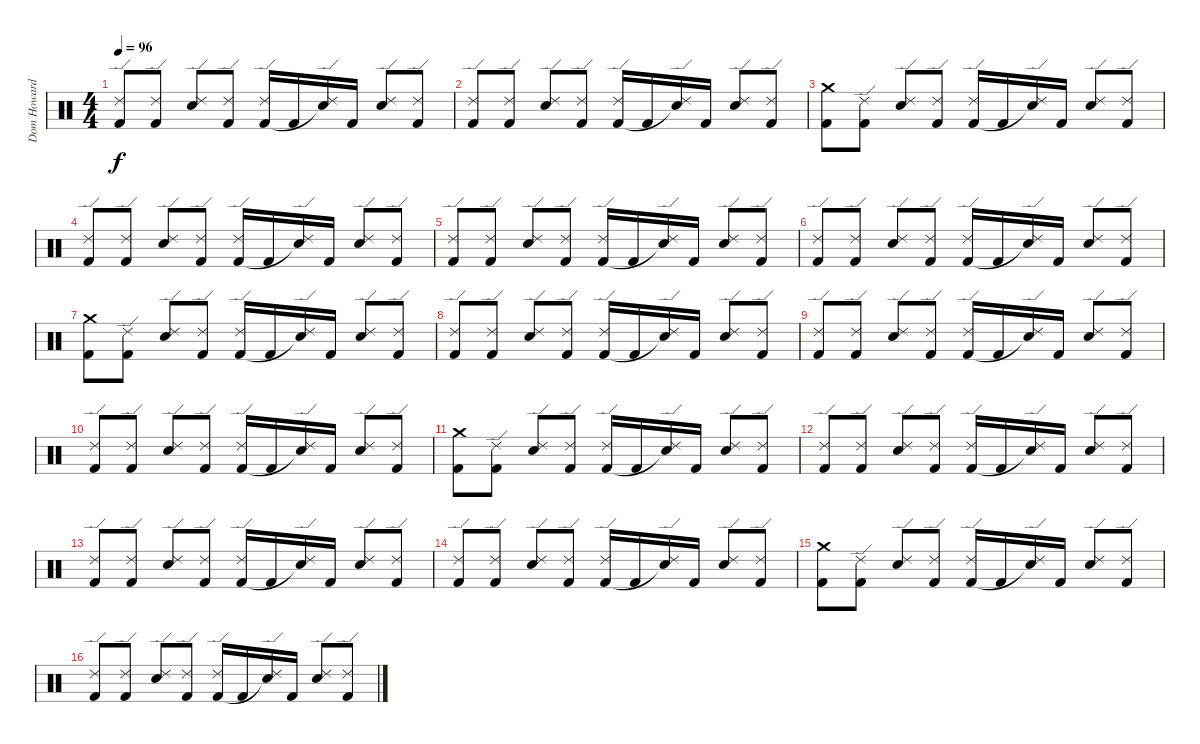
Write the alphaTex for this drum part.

\track ("Dom Howard" "Dom Howard") {instrument percussion}
\staff {score}
\articulation defaults
\ts (4 4)
\tempo 96
\clef neutral
\ks c
("Ride (edge) 2" "Kick (hit) 2").8{dy f} ("Ride (edge) 2" "Kick (hit) 2").8 ("Ride (edge) 2" "Electric Snare (hit)").8 ("Ride (edge) 2" "Kick (hit) 2").8 ("Ride (edge) 2" "Kick (hit) 2").16 "Kick (hit) 2".16 ("Ride (edge) 2" "Snare (hit)"{t}).16 "Kick (hit) 2".16 ("Ride (edge) 2" "Electric Snare (hit)").8 ("Ride (edge) 2" "Kick (hit) 2").8 |
("Ride (edge) 2" "Kick (hit) 2").8 ("Ride (edge) 2" "Kick (hit) 2").8 ("Ride (edge) 2" "Electric Snare (hit)").8 ("Ride (edge) 2" "Kick (hit) 2").8 ("Ride (edge) 2" "Kick (hit) 2").16 "Kick (hit) 2".16 ("Ride (edge) 2" "Snare (hit)"{t}).16 "Kick (hit) 2".16 ("Ride (edge) 2" "Electric Snare (hit)").8 ("Ride (edge) 2" "Kick (hit) 2").8 |
("Crash medium (hit)" "Kick (hit) 2").8 ("Ride (edge) 2" "Kick (hit) 2").8 ("Ride (edge) 2" "Electric Snare (hit)").8 ("Ride (edge) 2" "Kick (hit) 2").8 ("Ride (edge) 2" "Kick (hit) 2").16 "Kick (hit) 2".16 ("Ride (edge) 2" "Snare (hit)"{t}).16 "Kick (hit) 2".16 ("Ride (edge) 2" "Electric Snare (hit)").8 ("Ride (edge) 2" "Kick (hit) 2").8 |
("Ride (edge) 2" "Kick (hit) 2").8 ("Ride (edge) 2" "Kick (hit) 2").8 ("Ride (edge) 2" "Electric Snare (hit)").8 ("Ride (edge) 2" "Kick (hit) 2").8 ("Ride (edge) 2" "Kick (hit) 2").16 "Kick (hit) 2".16 ("Ride (edge) 2" "Snare (hit)"{t}).16 "Kick (hit) 2".16 ("Ride (edge) 2" "Electric Snare (hit)").8 ("Ride (edge) 2" "Kick (hit) 2").8 |
("Ride (edge) 2" "Kick (hit) 2").8 ("Ride (edge) 2" "Kick (hit) 2").8 ("Ride (edge) 2" "Electric Snare (hit)").8 ("Ride (edge) 2" "Kick (hit) 2").8 ("Ride (edge) 2" "Kick (hit) 2").16 "Kick (hit) 2".16 ("Ride (edge) 2" "Snare (hit)"{t}).16 "Kick (hit) 2".16 ("Ride (edge) 2" "Electric Snare (hit)").8 ("Ride (edge) 2" "Kick (hit) 2").8 |
("Ride (edge) 2" "Kick (hit) 2").8 ("Ride (edge) 2" "Kick (hit) 2").8 ("Ride (edge) 2" "Electric Snare (hit)").8 ("Ride (edge) 2" "Kick (hit) 2").8 ("Ride (edge) 2" "Kick (hit) 2").16 "Kick (hit) 2".16 ("Ride (edge) 2" "Snare (hit)"{t}).16 "Kick (hit) 2".16 ("Ride (edge) 2" "Electric Snare (hit)").8 ("Ride (edge) 2" "Kick (hit) 2").8 |
("Crash medium (hit)" "Kick (hit) 2").8 ("Ride (edge) 2" "Kick (hit) 2").8 ("Ride (edge) 2" "Electric Snare (hit)").8 ("Ride (edge) 2" "Kick (hit) 2").8 ("Ride (edge) 2" "Kick (hit) 2").16 "Kick (hit) 2".16 ("Ride (edge) 2" "Snare (hit)"{t}).16 "Kick (hit) 2".16 ("Ride (edge) 2" "Electric Snare (hit)").8 ("Ride (edge) 2" "Kick (hit) 2").8 |
("Ride (edge) 2" "Kick (hit) 2").8 ("Ride (edge) 2" "Kick (hit) 2").8 ("Ride (edge) 2" "Electric Snare (hit)").8 ("Ride (edge) 2" "Kick (hit) 2").8 ("Ride (edge) 2" "Kick (hit) 2").16 "Kick (hit) 2".16 ("Ride (edge) 2" "Snare (hit)"{t}).16 "Kick (hit) 2".16 ("Ride (edge) 2" "Electric Snare (hit)").8 ("Ride (edge) 2" "Kick (hit) 2").8 |
("Ride (edge) 2" "Kick (hit) 2").8 ("Ride (edge) 2" "Kick (hit) 2").8 ("Ride (edge) 2" "Electric Snare (hit)").8 ("Ride (edge) 2" "Kick (hit) 2").8 ("Ride (edge) 2" "Kick (hit) 2").16 "Kick (hit) 2".16 ("Ride (edge) 2" "Snare (hit)"{t}).16 "Kick (hit) 2".16 ("Ride (edge) 2" "Electric Snare (hit)").8 ("Ride (edge) 2" "Kick (hit) 2").8 |
("Ride (edge) 2" "Kick (hit) 2").8 ("Ride (edge) 2" "Kick (hit) 2").8 ("Ride (edge) 2" "Electric Snare (hit)").8 ("Ride (edge) 2" "Kick (hit) 2").8 ("Ride (edge) 2" "Kick (hit) 2").16 "Kick (hit) 2".16 ("Ride (edge) 2" "Snare (hit)"{t}).16 "Kick (hit) 2".16 ("Ride (edge) 2" "Electric Snare (hit)").8 ("Ride (edge) 2" "Kick (hit) 2").8 |
("Crash medium (hit)" "Kick (hit) 2").8 ("Ride (edge) 2" "Kick (hit) 2").8 ("Ride (edge) 2" "Electric Snare (hit)").8 ("Ride (edge) 2" "Kick (hit) 2").8 ("Ride (edge) 2" "Kick (hit) 2").16 "Kick (hit) 2".16 ("Ride (edge) 2" "Snare (hit)"{t}).16 "Kick (hit) 2".16 ("Ride (edge) 2" "Electric Snare (hit)").8 ("Ride (edge) 2" "Kick (hit) 2").8 |
("Ride (edge) 2" "Kick (hit) 2").8 ("Ride (edge) 2" "Kick (hit) 2").8 ("Ride (edge) 2" "Electric Snare (hit)").8 ("Ride (edge) 2" "Kick (hit) 2").8 ("Ride (edge) 2" "Kick (hit) 2").16 "Kick (hit) 2".16 ("Ride (edge) 2" "Snare (hit)"{t}).16 "Kick (hit) 2".16 ("Ride (edge) 2" "Electric Snare (hit)").8 ("Ride (edge) 2" "Kick (hit) 2").8 |
("Ride (edge) 2" "Kick (hit) 2").8 ("Ride (edge) 2" "Kick (hit) 2").8 ("Ride (edge) 2" "Electric Snare (hit)").8 ("Ride (edge) 2" "Kick (hit) 2").8 ("Ride (edge) 2" "Kick (hit) 2").16 "Kick (hit) 2".16 ("Ride (edge) 2" "Snare (hit)"{t}).16 "Kick (hit) 2".16 ("Ride (edge) 2" "Electric Snare (hit)").8 ("Ride (edge) 2" "Kick (hit) 2").8 |
("Ride (edge) 2" "Kick (hit) 2").8 ("Ride (edge) 2" "Kick (hit) 2").8 ("Ride (edge) 2" "Electric Snare (hit)").8 ("Ride (edge) 2" "Kick (hit) 2").8 ("Ride (edge) 2" "Kick (hit) 2").16 "Kick (hit) 2".16 ("Ride (edge) 2" "Snare (hit)"{t}).16 "Kick (hit) 2".16 ("Ride (edge) 2" "Electric Snare (hit)").8 ("Ride (edge) 2" "Kick (hit) 2").8 |
("Crash medium (hit)" "Kick (hit) 2").8 ("Ride (edge) 2" "Kick (hit) 2").8 ("Ride (edge) 2" "Electric Snare (hit)").8 ("Ride (edge) 2" "Kick (hit) 2").8 ("Ride (edge) 2" "Kick (hit) 2").16 "Kick (hit) 2".16 ("Ride (edge) 2" "Snare (hit)"{t}).16 "Kick (hit) 2".16 ("Ride (edge) 2" "Electric Snare (hit)").8 ("Ride (edge) 2" "Kick (hit) 2").8 |
("Ride (edge) 2" "Kick (hit) 2").8 ("Ride (edge) 2" "Kick (hit) 2").8 ("Ride (edge) 2" "Electric Snare (hit)").8 ("Ride (edge) 2" "Kick (hit) 2").8 ("Ride (edge) 2" "Kick (hit) 2").16 "Kick (hit) 2".16 ("Ride (edge) 2" "Snare (hit)"{t}).16 "Kick (hit) 2".16 ("Ride (edge) 2" "Electric Snare (hit)").8 ("Ride (edge) 2" "Kick (hit) 2").8
